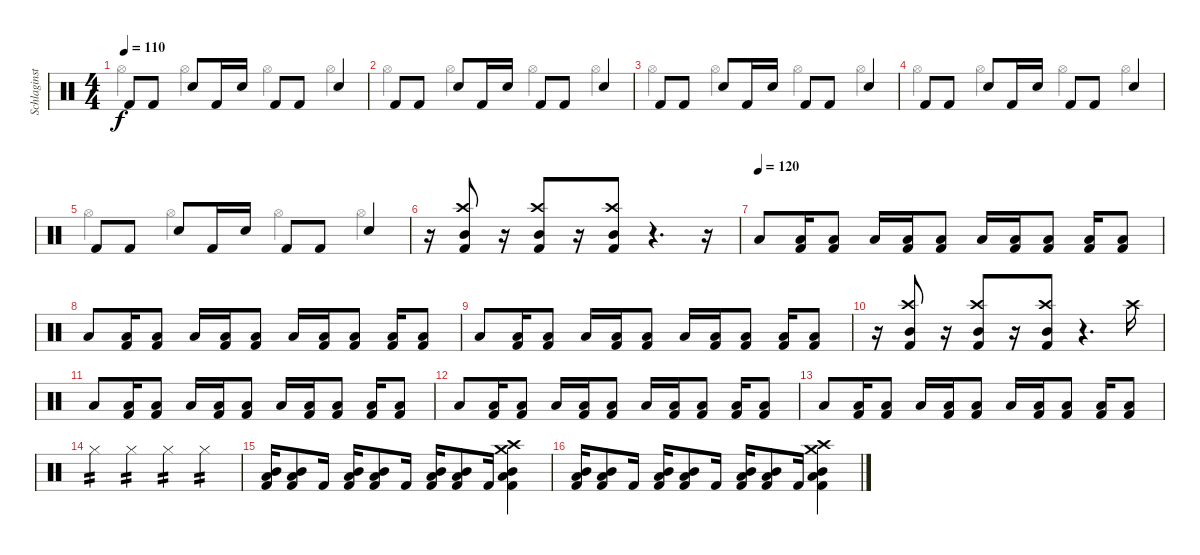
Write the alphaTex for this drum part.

\track ("Schlaginstrumente - Auswahl" "Schlaginst") {instrument percussion}
\staff {score}
\articulation defaults
\voice
\ts (4 4)
\tempo 110
\clef neutral
\ks c "Kick (hit) 2".8{dy f} "Kick (hit) 2".8 "Snare (hit) 2".8 "Kick (hit) 2".16 "Snare (hit) 2".16 "Kick (hit) 2".8 "Kick (hit) 2".8 "Snare (hit) 2".4
|
"Kick (hit) 2".8 "Kick (hit) 2".8 "Snare (hit) 2".8 "Kick (hit) 2".16 "Snare (hit) 2".16 "Kick (hit) 2".8 "Kick (hit) 2".8 "Snare (hit) 2".4 |
"Kick (hit) 2".8 "Kick (hit) 2".8 "Snare (hit) 2".8 "Kick (hit) 2".16 "Snare (hit) 2".16 "Kick (hit) 2".8 "Kick (hit) 2".8 "Snare (hit) 2".4 |
"Kick (hit) 2".8 "Kick (hit) 2".8 "Snare (hit) 2".8 "Kick (hit) 2".16 "Snare (hit) 2".16 "Kick (hit) 2".8 "Kick (hit) 2".8 "Snare (hit) 2".4 |
"Kick (hit) 2".8 "Kick (hit) 2".8 "Snare (hit) 2".8 "Kick (hit) 2".16 "Snare (hit) 2".16 "Kick (hit) 2".8 "Kick (hit) 2".8 "Snare (hit) 2".4 |
r.16 ("Crash high (hit)" "Mid Tom (hit)" "Kick (hit) 2").8 r.16 ("Crash high (hit)" "Mid Tom (hit)" "Kick (hit) 2").8 r.16 ("Crash high (hit)" "Mid Tom (hit)" "Kick (hit) 2").8 r.4{d} r.16 |
\tempo (120)
"Low Tom (hit)".8 ("Low Tom (hit)" "Kick (hit) 2").16 ("Low Tom (hit)" "Kick (hit) 2").8 "Low Tom (hit)".16 ("Low Tom (hit)" "Kick (hit) 2").16 ("Low Tom (hit)" "Kick (hit) 2").8 "Low Tom (hit)".16 ("Low Tom (hit)" "Kick (hit) 2").16 ("Low Tom (hit)" "Kick (hit) 2").8 ("Low Tom (hit)" "Kick (hit) 2").16 ("Low Tom (hit)" "Kick (hit) 2").8 |
"Low Tom (hit)".8 ("Low Tom (hit)" "Kick (hit) 2").16 ("Low Tom (hit)" "Kick (hit) 2").8 "Low Tom (hit)".16 ("Low Tom (hit)" "Kick (hit) 2").16 ("Low Tom (hit)" "Kick (hit) 2").8 "Low Tom (hit)".16 ("Low Tom (hit)" "Kick (hit) 2").16 ("Low Tom (hit)" "Kick (hit) 2").8 ("Low Tom (hit)" "Kick (hit) 2").16 ("Low Tom (hit)" "Kick (hit) 2").8 |
"Low Tom (hit)".8 ("Low Tom (hit)" "Kick (hit) 2").16 ("Low Tom (hit)" "Kick (hit) 2").8 "Low Tom (hit)".16 ("Low Tom (hit)" "Kick (hit) 2").16 ("Low Tom (hit)" "Kick (hit) 2").8 "Low Tom (hit)".16 ("Low Tom (hit)" "Kick (hit) 2").16 ("Low Tom (hit)" "Kick (hit) 2").8 ("Low Tom (hit)" "Kick (hit) 2").16 ("Low Tom (hit)" "Kick (hit) 2").8 |
r.16 ("Crash high (hit)" "Mid Tom (hit)" "Kick (hit) 2").8 r.16 ("Crash high (hit)" "Mid Tom (hit)" "Kick (hit) 2").8 r.16 ("Crash high (hit)" "Mid Tom (hit)" "Kick (hit) 2").8 r.4{d} "Crash high (hit)".16 |
"Low Tom (hit)".8 ("Low Tom (hit)" "Kick (hit) 2").16 ("Low Tom (hit)" "Kick (hit) 2").8 "Low Tom (hit)".16 ("Low Tom (hit)" "Kick (hit) 2").16 ("Low Tom (hit)" "Kick (hit) 2").8 "Low Tom (hit)".16 ("Low Tom (hit)" "Kick (hit) 2").16 ("Low Tom (hit)" "Kick (hit) 2").8 ("Low Tom (hit)" "Kick (hit) 2").16 ("Low Tom (hit)" "Kick (hit) 2").8 |
"Low Tom (hit)".8 ("Low Tom (hit)" "Kick (hit) 2").16 ("Low Tom (hit)" "Kick (hit) 2").8 "Low Tom (hit)".16 ("Low Tom (hit)" "Kick (hit) 2").16 ("Low Tom (hit)" "Kick (hit) 2").8 "Low Tom (hit)".16 ("Low Tom (hit)" "Kick (hit) 2").16 ("Low Tom (hit)" "Kick (hit) 2").8 ("Low Tom (hit)" "Kick (hit) 2").16 ("Low Tom (hit)" "Kick (hit) 2").8 |
"Low Tom (hit)".8 ("Low Tom (hit)" "Kick (hit) 2").16 ("Low Tom (hit)" "Kick (hit) 2").8 "Low Tom (hit)".16 ("Low Tom (hit)" "Kick (hit) 2").16 ("Low Tom (hit)" "Kick (hit) 2").8 "Low Tom (hit)".16 ("Low Tom (hit)" "Kick (hit) 2").16 ("Low Tom (hit)" "Kick (hit) 2").8 ("Low Tom (hit)" "Kick (hit) 2").16 ("Low Tom (hit)" "Kick (hit) 2").8 |
"Hi-Hat (closed)".4{tp 2} "Hi-Hat (closed)".4{tp 2} "Hi-Hat (closed)".4{tp 2} "Hi-Hat (closed)".4{tp 2} |
("Low Tom (hit)" "Mid Tom (hit)" "Kick (hit) 2").16 ("Low Tom (hit)" "Mid Tom (hit)" "Kick (hit) 2").8 "Kick (hit) 2".16 ("Low Tom (hit)" "Mid Tom (hit)" "Kick (hit) 2").16 ("Low Tom (hit)" "Mid Tom (hit)" "Kick (hit) 2").8 "Kick (hit) 2".16 ("Low Tom (hit)" "Mid Tom (hit)" "Kick (hit) 2").16 ("Low Tom (hit)" "Mid Tom (hit)" "Kick (hit) 2").8 "Kick (hit) 2".16 ("Crash medium (hit)" "Crash high (hit)" "Low Tom (hit)" "Mid Tom (hit)" "Kick (hit) 2").4 |
("Low Tom (hit)" "Mid Tom (hit)" "Kick (hit) 2").16 ("Low Tom (hit)" "Mid Tom (hit)" "Kick (hit) 2").8 "Kick (hit) 2".16 ("Low Tom (hit)" "Mid Tom (hit)" "Kick (hit) 2").16 ("Low Tom (hit)" "Mid Tom (hit)" "Kick (hit) 2").8 "Kick (hit) 2".16 ("Low Tom (hit)" "Mid Tom (hit)" "Kick (hit) 2").16 ("Low Tom (hit)" "Mid Tom (hit)" "Kick (hit) 2").8 "Kick (hit) 2".16 ("Crash medium (hit)" "Crash high (hit)" "Low Tom (hit)" "Mid Tom (hit)" "Kick (hit) 2").4
\voice
\clef neutral
\ottava regular
\simile none
\ks c "Hi-Hat (open)".4{dy f} "Hi-Hat (open)".4 "Hi-Hat (open)".4 "Hi-Hat (open)".4
|
"Hi-Hat (open)".4 "Hi-Hat (open)".4 "Hi-Hat (open)".4 "Hi-Hat (open)".4 |
"Hi-Hat (open)".4 "Hi-Hat (open)".4 "Hi-Hat (open)".4 "Hi-Hat (open)".4 |
"Hi-Hat (open)".4 "Hi-Hat (open)".4 "Hi-Hat (open)".4 "Hi-Hat (open)".4 |
"Hi-Hat (open)".4 "Hi-Hat (open)".4 "Hi-Hat (open)".4 "Hi-Hat (open)".4 |
|
|
|
|
|
|
|
|
|
|
